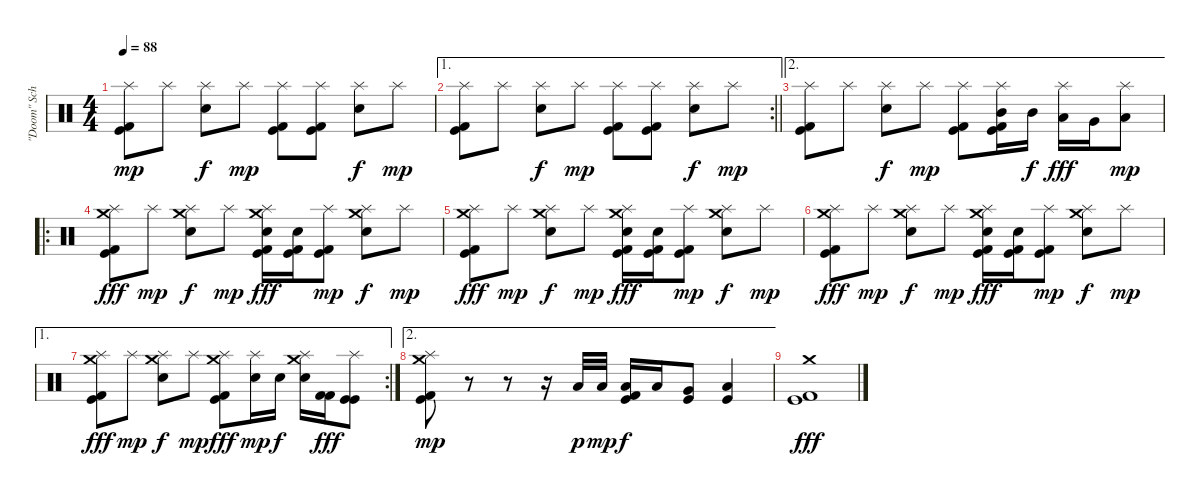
\track ("\"Doom\" Schneider" "\"Doom\" Sch") {instrument percussion}
\staff {score}
\articulation defaults
\ts (4 4)
\tempo 88
\clef neutral
\ks c
("Splash (hit)" "Kick (hit)" "Kick (hit) 2").8{dy mp} "Splash (hit)".8 ("Splash (hit)" "Snare (hit) 2").8{dy f} "Splash (hit)".8{dy mp} ("Splash (hit)" "Kick (hit)" "Kick (hit) 2").8 ("Splash (hit)" "Kick (hit)" "Kick (hit) 2").8 ("Splash (hit)" "Snare (hit) 2").8{dy f} "Splash (hit)".8{dy mp} |
\ae 1
\rc 2
\barLineRight lightlight
("Splash (hit)" "Kick (hit)" "Kick (hit) 2").8 "Splash (hit)".8 ("Splash (hit)" "Snare (hit) 2").8{dy f} "Splash (hit)".8{dy mp} ("Splash (hit)" "Kick (hit)" "Kick (hit) 2").8 ("Splash (hit)" "Kick (hit)" "Kick (hit) 2").8 ("Splash (hit)" "Snare (hit) 2").8{dy f} "Splash (hit)".8{dy mp} |
\ae 2
("Splash (hit)" "Kick (hit)" "Kick (hit) 2").8 "Splash (hit)".8 ("Splash (hit)" "Snare (hit) 2").8{dy f} "Splash (hit)".8{dy mp} ("Splash (hit)" "Kick (hit)" "Kick (hit) 2").8 ("Splash (hit)" "Kick (hit)" "Kick (hit) 2" "Mid Tom (hit)").16 "Mid Tom (hit)".16{dy f} ("Splash (hit)" "Low Tom (hit)").16{dy fff} "Very Low Tom (hit)".16 ("Splash (hit)" "Low Floor Tom (hit)").8{dy mp} |
\ro
("Splash (hit)" "Kick (hit)" "Kick (hit) 2" "Crash medium (hit)").8{dy fff} "Splash (hit)".8{dy mp} ("Splash (hit)" "Snare (hit) 2" "Crash medium (hit)").8{dy f} "Splash (hit)".8{dy mp} ("Splash (hit)" "Kick (hit)" "Kick (hit) 2" "Snare (hit) 2" "Crash medium (hit)").16{dy fff} ("Kick (hit)" "Kick (hit) 2" "Snare (hit) 2").16 ("Splash (hit)" "Kick (hit)" "Kick (hit) 2").8{dy mp} ("Splash (hit)" "Snare (hit) 2" "Crash medium (hit)").8{dy f} "Splash (hit)".8{dy mp} |
("Splash (hit)" "Kick (hit)" "Kick (hit) 2" "Crash medium (hit)").8{dy fff} "Splash (hit)".8{dy mp} ("Splash (hit)" "Snare (hit) 2" "Crash medium (hit)").8{dy f} "Splash (hit)".8{dy mp} ("Splash (hit)" "Kick (hit)" "Kick (hit) 2" "Snare (hit) 2" "Crash medium (hit)").16{dy fff} ("Kick (hit)" "Kick (hit) 2" "Snare (hit) 2").16 ("Splash (hit)" "Kick (hit)" "Kick (hit) 2").8{dy mp} ("Splash (hit)" "Snare (hit) 2" "Crash medium (hit)").8{dy f} "Splash (hit)".8{dy mp} |
("Splash (hit)" "Kick (hit)" "Kick (hit) 2" "Crash medium (hit)").8{dy fff} "Splash (hit)".8{dy mp} ("Splash (hit)" "Snare (hit) 2" "Crash medium (hit)").8{dy f} "Splash (hit)".8{dy mp} ("Splash (hit)" "Kick (hit)" "Kick (hit) 2" "Snare (hit) 2" "Crash medium (hit)").16{dy fff} ("Kick (hit)" "Kick (hit) 2" "Snare (hit) 2").16 ("Splash (hit)" "Kick (hit)" "Kick (hit) 2").8{dy mp} ("Splash (hit)" "Snare (hit) 2" "Crash medium (hit)").8{dy f} "Splash (hit)".8{dy mp} |
\ae 1
\rc 2
("Splash (hit)" "Kick (hit)" "Kick (hit) 2" "Crash medium (hit)").8{dy fff} "Splash (hit)".8{dy mp} ("Splash (hit)" "Snare (hit) 2" "Crash medium (hit)").8{dy f} "Splash (hit)".8{dy mp} ("Splash (hit)" "Kick (hit)" "Kick (hit) 2" "Crash medium (hit)").8{dy fff} ("Splash (hit)" "Snare (hit) 2").16{dy mp} "Snare (hit) 2".16{dy f} ("Splash (hit)" "Electric Snare (hit)" "Crash medium (hit)").16 ("Kick (hit) 2" "Kick (hit) 2").16{dy fff} ("Splash (hit)" "Kick (hit)" "Kick (hit)").8 |
\ae 2
("Splash (hit)" "Kick (hit)" "Kick (hit) 2" "Crash medium (hit)").8{dy mp} r.8 r.8 r.16 "Low Tom (hit)".32{dy p} "Low Tom (hit)".32{dy mp} ("Kick (hit)" "Kick (hit) 2" "Low Tom (hit)").16{dy f} "Low Tom (hit)".16 ("Kick (hit)" "Very Low Tom (hit)").8 ("Kick (hit)" "Low Floor Tom (hit)").4 |
("Kick (hit) 2" "Kick (hit)" "Crash medium (hit)").1{dy fff}
